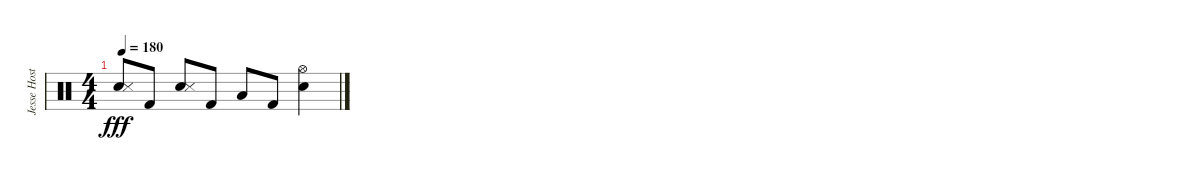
\track ("Jesse Hostetler" "Jesse Host") {instrument percussion}
\staff {score}
\articulation defaults
\ts (4 4)
\tempo 180
\clef neutral
\ks c
("Electric Snare (hit)" "Snare (side stick) 3").8{dy fff} "Kick (hit) 2".8 ("Electric Snare (hit)" "Snare (side stick) 3").8 "Kick (hit) 2".8 "Low Floor Tom (hit)".8 "Kick (hit) 2".8 ("Hi-Hat (open)" "Electric Snare (hit)").4
